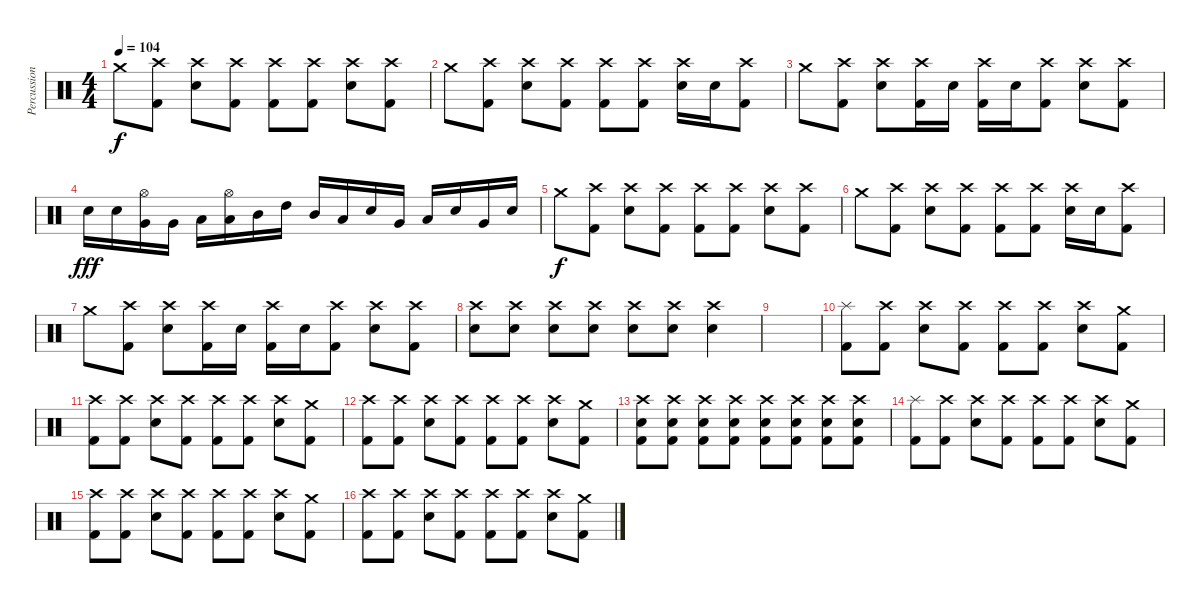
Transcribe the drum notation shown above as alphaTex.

\track ("Percussion" "Percussion") {instrument percussion}
\staff {score}
\articulation defaults
\ts (4 4)
\tempo 104
\clef neutral
\ks c "Crash medium (hit)".8{dy f}
("Crash high (hit)" "Kick (hit) 2").8 ("Crash high (hit)" "Electric Snare (hit)").8 ("Crash high (hit)" "Kick (hit) 2").8 ("Crash high (hit)" "Kick (hit) 2").8 ("Crash high (hit)" "Kick (hit) 2").8 ("Crash high (hit)" "Electric Snare (hit)").8 ("Crash high (hit)" "Kick (hit) 2").8 |
"Crash medium (hit)".8 ("Crash high (hit)" "Kick (hit) 2").8 ("Crash high (hit)" "Electric Snare (hit)").8 ("Crash high (hit)" "Kick (hit) 2").8 ("Crash high (hit)" "Kick (hit) 2").8 ("Crash high (hit)" "Kick (hit) 2").8 ("Crash high (hit)" "Electric Snare (hit)").16 "Electric Snare (hit)".16 ("Crash high (hit)" "Kick (hit) 2").8 |
"Crash medium (hit)".8 ("Crash high (hit)" "Kick (hit) 2").8 ("Crash high (hit)" "Electric Snare (hit)").8 ("Crash high (hit)" "Kick (hit) 2").16 "Electric Snare (hit)".16 ("Crash high (hit)" "Kick (hit) 2").16 "Electric Snare (hit)".16 ("Crash high (hit)" "Kick (hit) 2").8 ("Crash high (hit)" "Electric Snare (hit)").8 ("Crash high (hit)" "Kick (hit) 2").8 |
"Electric Snare (hit)".16{dy fff} "Electric Snare (hit)".16 ("Hi-Hat (open)" "Very Low Tom (hit)").16 "Very Low Tom (hit)".16 "Low Tom (hit)".16 ("Hi-Hat (open)" "Low Tom (hit)").16 "Mid Tom (hit)".16 "High Tom (hit)".16 "Mid Tom (hit)".16 "Low Tom (hit)".16 "Electric Snare (hit)".16 "Very Low Tom (hit)".16 "Low Tom (hit)".16 "Electric Snare (hit)".16 "Very Low Tom (hit)".16 "Electric Snare (hit)".16 |
"Crash medium (hit)".8{dy f} ("Crash high (hit)" "Kick (hit) 2").8 ("Crash high (hit)" "Electric Snare (hit)").8 ("Crash high (hit)" "Kick (hit) 2").8 ("Crash high (hit)" "Kick (hit) 2").8 ("Crash high (hit)" "Kick (hit) 2").8 ("Crash high (hit)" "Electric Snare (hit)").8 ("Crash high (hit)" "Kick (hit) 2").8 |
"Crash medium (hit)".8 ("Crash high (hit)" "Kick (hit) 2").8 ("Crash high (hit)" "Electric Snare (hit)").8 ("Crash high (hit)" "Kick (hit) 2").8 ("Crash high (hit)" "Kick (hit) 2").8 ("Crash high (hit)" "Kick (hit) 2").8 ("Crash high (hit)" "Electric Snare (hit)").16 "Electric Snare (hit)".16 ("Crash high (hit)" "Kick (hit) 2").8 |
"Crash medium (hit)".8 ("Crash high (hit)" "Kick (hit) 2").8 ("Crash high (hit)" "Electric Snare (hit)").8 ("Crash high (hit)" "Kick (hit) 2").16 "Electric Snare (hit)".16 ("Crash high (hit)" "Kick (hit) 2").16 "Electric Snare (hit)".16 ("Crash high (hit)" "Kick (hit) 2").8 ("Crash high (hit)" "Electric Snare (hit)").8 ("Crash high (hit)" "Kick (hit) 2").8 |
("Crash high (hit)" "Electric Snare (hit)").8 ("Crash high (hit)" "Electric Snare (hit)").8 ("Crash high (hit)" "Electric Snare (hit)").8 ("Crash high (hit)" "Electric Snare (hit)").8 ("Crash high (hit)" "Electric Snare (hit)").8 ("Crash high (hit)" "Electric Snare (hit)").8 ("Crash high (hit)" "Electric Snare (hit)").4 |
|
("Splash (hit)" "Kick (hit) 2").8 ("Crash high (hit)" "Kick (hit) 2").8 ("Crash high (hit)" "Electric Snare (hit)").8 ("Crash high (hit)" "Kick (hit) 2").8 ("Crash high (hit)" "Kick (hit) 2").8 ("Crash high (hit)" "Kick (hit) 2").8 ("Crash high (hit)" "Electric Snare (hit)").8 ("Crash medium (hit)" "Kick (hit) 2").8 |
("Crash high (hit)" "Kick (hit) 2").8 ("Crash high (hit)" "Kick (hit) 2").8 ("Crash high (hit)" "Electric Snare (hit)").8 ("Crash high (hit)" "Kick (hit) 2").8 ("Crash high (hit)" "Kick (hit) 2").8 ("Crash high (hit)" "Kick (hit) 2").8 ("Crash high (hit)" "Electric Snare (hit)").8 ("Crash medium (hit)" "Kick (hit) 2").8 |
("Crash high (hit)" "Kick (hit) 2").8 ("Crash high (hit)" "Kick (hit) 2").8 ("Crash high (hit)" "Electric Snare (hit)").8 ("Crash high (hit)" "Kick (hit) 2").8 ("Crash high (hit)" "Kick (hit) 2").8 ("Crash high (hit)" "Kick (hit) 2").8 ("Crash high (hit)" "Electric Snare (hit)").8 ("Crash medium (hit)" "Kick (hit) 2").8 |
("Crash high (hit)" "Electric Snare (hit)" "Kick (hit) 2").8 ("Crash high (hit)" "Electric Snare (hit)" "Kick (hit) 2").8 ("Crash high (hit)" "Electric Snare (hit)" "Kick (hit) 2").8 ("Crash high (hit)" "Electric Snare (hit)" "Kick (hit) 2").8 ("Crash high (hit)" "Electric Snare (hit)" "Kick (hit) 2").8 ("Crash high (hit)" "Electric Snare (hit)" "Kick (hit) 2").8 ("Crash high (hit)" "Electric Snare (hit)" "Kick (hit) 2").8 ("Crash high (hit)" "Electric Snare (hit)" "Kick (hit) 2").8 |
("Splash (hit)" "Kick (hit) 2").8 ("Crash high (hit)" "Kick (hit) 2").8 ("Crash high (hit)" "Electric Snare (hit)").8 ("Crash high (hit)" "Kick (hit) 2").8 ("Crash high (hit)" "Kick (hit) 2").8 ("Crash high (hit)" "Kick (hit) 2").8 ("Crash high (hit)" "Electric Snare (hit)").8 ("Crash medium (hit)" "Kick (hit) 2").8 |
("Crash high (hit)" "Kick (hit) 2").8 ("Crash high (hit)" "Kick (hit) 2").8 ("Crash high (hit)" "Electric Snare (hit)").8 ("Crash high (hit)" "Kick (hit) 2").8 ("Crash high (hit)" "Kick (hit) 2").8 ("Crash high (hit)" "Kick (hit) 2").8 ("Crash high (hit)" "Electric Snare (hit)").8 ("Crash medium (hit)" "Kick (hit) 2").8 |
("Crash high (hit)" "Kick (hit) 2").8 ("Crash high (hit)" "Kick (hit) 2").8 ("Crash high (hit)" "Electric Snare (hit)").8 ("Crash high (hit)" "Kick (hit) 2").8 ("Crash high (hit)" "Kick (hit) 2").8 ("Crash high (hit)" "Kick (hit) 2").8 ("Crash high (hit)" "Electric Snare (hit)").8 ("Crash medium (hit)" "Kick (hit) 2").8
